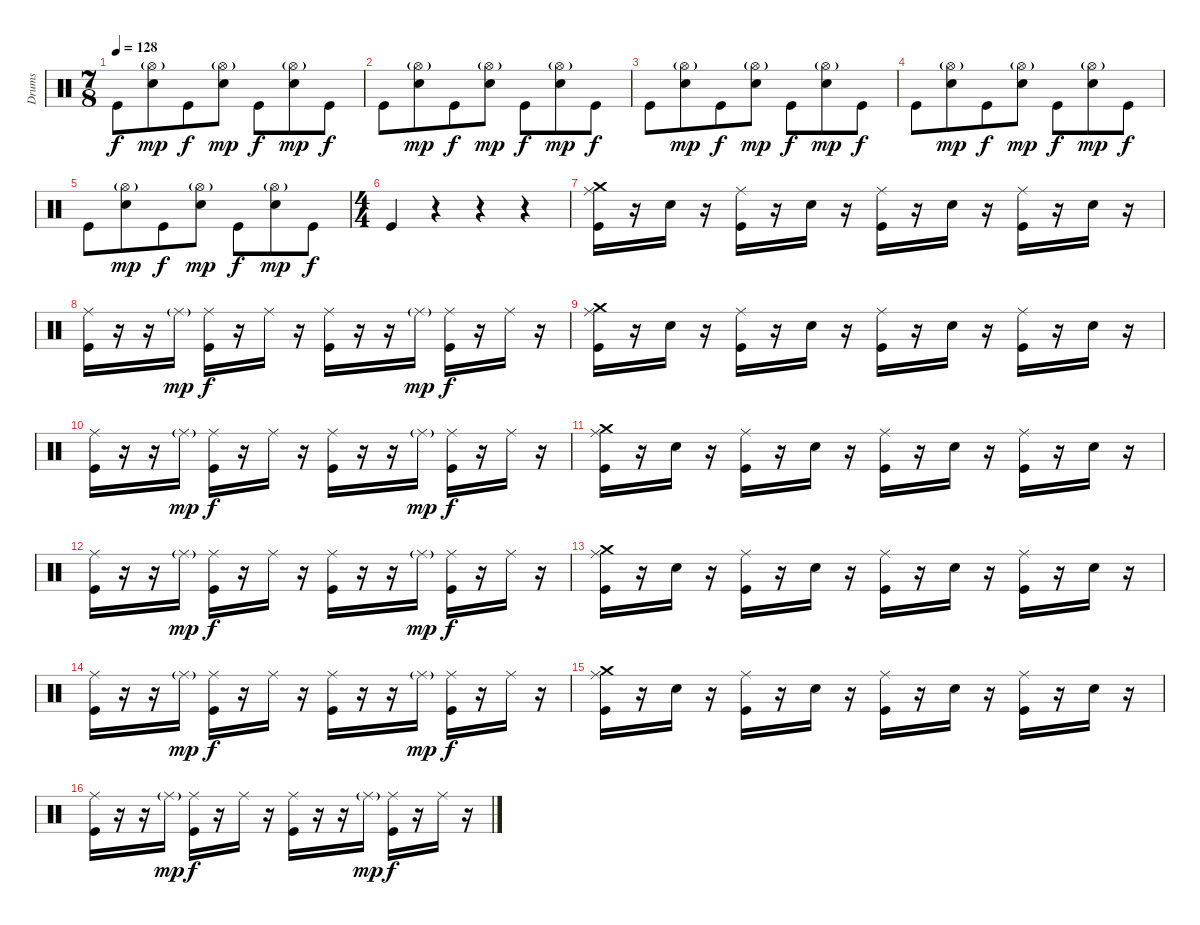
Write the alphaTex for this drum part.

\track ("Drums" "Drums") {instrument percussion}
\staff {score}
\articulation defaults
\ts (7 8)
\tempo 128
\clef neutral
\ks c "Kick (hit)".8{dy f}
("Hi-Hat (open)"{g} "Electric Snare (hit)").8{dy mp} "Kick (hit)".8{dy f} ("Hi-Hat (open)"{g} "Electric Snare (hit)").8{dy mp} "Kick (hit)".8{dy f} ("Hi-Hat (open)"{g} "Electric Snare (hit)").8{dy mp} "Kick (hit)".8{dy f} |
"Kick (hit)".8 ("Hi-Hat (open)"{g} "Electric Snare (hit)").8{dy mp} "Kick (hit)".8{dy f} ("Hi-Hat (open)"{g} "Electric Snare (hit)").8{dy mp} "Kick (hit)".8{dy f} ("Hi-Hat (open)"{g} "Electric Snare (hit)").8{dy mp} "Kick (hit)".8{dy f} |
"Kick (hit)".8 ("Hi-Hat (open)"{g} "Electric Snare (hit)").8{dy mp} "Kick (hit)".8{dy f} ("Hi-Hat (open)"{g} "Electric Snare (hit)").8{dy mp} "Kick (hit)".8{dy f} ("Hi-Hat (open)"{g} "Electric Snare (hit)").8{dy mp} "Kick (hit)".8{dy f} |
"Kick (hit)".8 ("Hi-Hat (open)"{g} "Electric Snare (hit)").8{dy mp} "Kick (hit)".8{dy f} ("Hi-Hat (open)"{g} "Electric Snare (hit)").8{dy mp} "Kick (hit)".8{dy f} ("Hi-Hat (open)"{g} "Electric Snare (hit)").8{dy mp} "Kick (hit)".8{dy f} |
"Kick (hit)".8 ("Hi-Hat (open)"{g} "Electric Snare (hit)").8{dy mp} "Kick (hit)".8{dy f} ("Hi-Hat (open)"{g} "Electric Snare (hit)").8{dy mp} "Kick (hit)".8{dy f} ("Hi-Hat (open)"{g} "Electric Snare (hit)").8{dy mp} "Kick (hit)".8{dy f} |
\ts (4 4)
"Kick (hit)".4 r.4 r.4 r.4 |
("Ride (middle)" "Crash medium (hit)" "Kick (hit)").16 r.16 "Electric Snare (hit)".16 r.16 ("Ride (middle)" "Kick (hit)").16 r.16 "Electric Snare (hit)".16 r.16 ("Ride (middle)" "Kick (hit)").16 r.16 "Electric Snare (hit)".16 r.16 ("Ride (middle)" "Kick (hit)").16 r.16 "Electric Snare (hit)".16 r.16 |
("Ride (middle)" "Kick (hit)").16 r.16 r.16 "Ride (middle)"{g}.16{dy mp} ("Ride (middle)" "Kick (hit)").16{dy f} r.16 "Ride (middle)".16 r.16 ("Ride (middle)" "Kick (hit)").16 r.16 r.16 "Ride (middle)"{g}.16{dy mp} ("Ride (middle)" "Kick (hit)").16{dy f} r.16 "Ride (middle)".16 r.16 |
("Ride (middle)" "Crash medium (hit)" "Kick (hit)").16 r.16 "Electric Snare (hit)".16 r.16 ("Ride (middle)" "Kick (hit)").16 r.16 "Electric Snare (hit)".16 r.16 ("Ride (middle)" "Kick (hit)").16 r.16 "Electric Snare (hit)".16 r.16 ("Ride (middle)" "Kick (hit)").16 r.16 "Electric Snare (hit)".16 r.16 |
("Ride (middle)" "Kick (hit)").16 r.16 r.16 "Ride (middle)"{g}.16{dy mp} ("Ride (middle)" "Kick (hit)").16{dy f} r.16 "Ride (middle)".16 r.16 ("Ride (middle)" "Kick (hit)").16 r.16 r.16 "Ride (middle)"{g}.16{dy mp} ("Ride (middle)" "Kick (hit)").16{dy f} r.16 "Ride (middle)".16 r.16 |
("Ride (middle)" "Crash medium (hit)" "Kick (hit)").16 r.16 "Electric Snare (hit)".16 r.16 ("Ride (middle)" "Kick (hit)").16 r.16 "Electric Snare (hit)".16 r.16 ("Ride (middle)" "Kick (hit)").16 r.16 "Electric Snare (hit)".16 r.16 ("Ride (middle)" "Kick (hit)").16 r.16 "Electric Snare (hit)".16 r.16 |
("Ride (middle)" "Kick (hit)").16 r.16 r.16 "Ride (middle)"{g}.16{dy mp} ("Ride (middle)" "Kick (hit)").16{dy f} r.16 "Ride (middle)".16 r.16 ("Ride (middle)" "Kick (hit)").16 r.16 r.16 "Ride (middle)"{g}.16{dy mp} ("Ride (middle)" "Kick (hit)").16{dy f} r.16 "Ride (middle)".16 r.16 |
("Ride (middle)" "Crash medium (hit)" "Kick (hit)").16 r.16 "Electric Snare (hit)".16 r.16 ("Ride (middle)" "Kick (hit)").16 r.16 "Electric Snare (hit)".16 r.16 ("Ride (middle)" "Kick (hit)").16 r.16 "Electric Snare (hit)".16 r.16 ("Ride (middle)" "Kick (hit)").16 r.16 "Electric Snare (hit)".16 r.16 |
("Ride (middle)" "Kick (hit)").16 r.16 r.16 "Ride (middle)"{g}.16{dy mp} ("Ride (middle)" "Kick (hit)").16{dy f} r.16 "Ride (middle)".16 r.16 ("Ride (middle)" "Kick (hit)").16 r.16 r.16 "Ride (middle)"{g}.16{dy mp} ("Ride (middle)" "Kick (hit)").16{dy f} r.16 "Ride (middle)".16 r.16 |
("Ride (middle)" "Crash medium (hit)" "Kick (hit)").16 r.16 "Electric Snare (hit)".16 r.16 ("Ride (middle)" "Kick (hit)").16 r.16 "Electric Snare (hit)".16 r.16 ("Ride (middle)" "Kick (hit)").16 r.16 "Electric Snare (hit)".16 r.16 ("Ride (middle)" "Kick (hit)").16 r.16 "Electric Snare (hit)".16 r.16 |
("Ride (middle)" "Kick (hit)").16 r.16 r.16 "Ride (middle)"{g}.16{dy mp} ("Ride (middle)" "Kick (hit)").16{dy f} r.16 "Ride (middle)".16 r.16 ("Ride (middle)" "Kick (hit)").16 r.16 r.16 "Ride (middle)"{g}.16{dy mp} ("Ride (middle)" "Kick (hit)").16{dy f} r.16 "Ride (middle)".16 r.16
